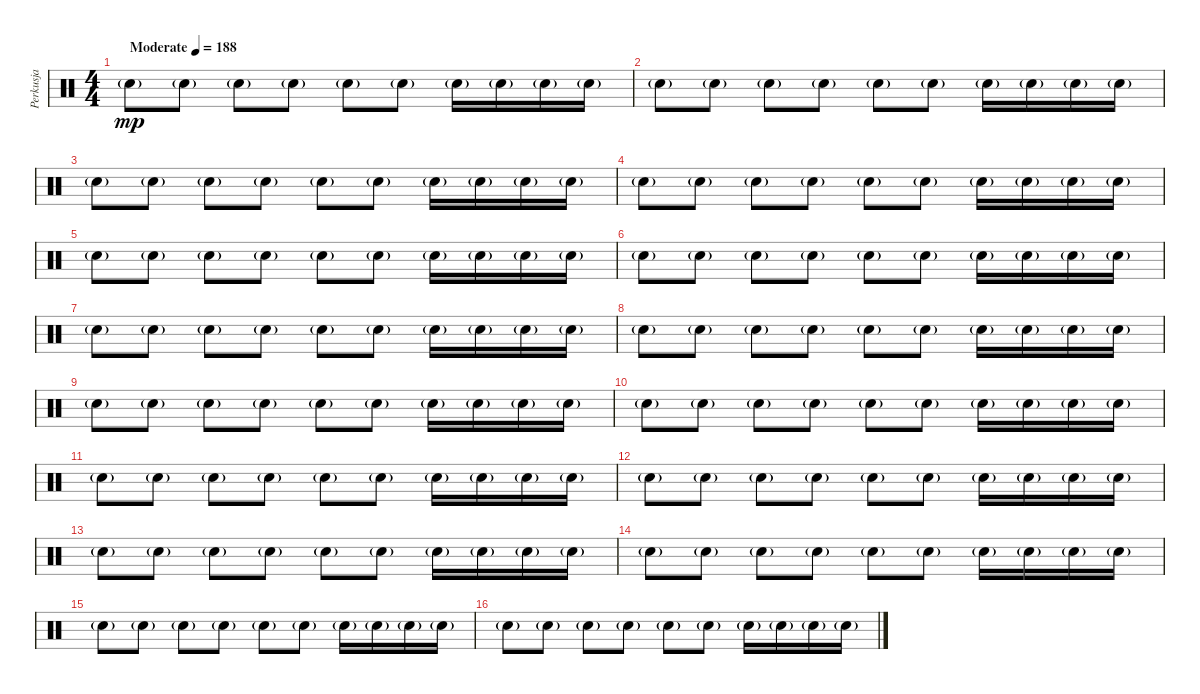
\track ("Perkusja" "Perkusja") {instrument percussion}
\staff {score}
\articulation defaults
\ts (4 4)
\tempo (188 "Moderate")
\clef neutral
\ks c "Electric Snare (hit)"{g}.8{dy mp} "Electric Snare (hit)"{g}.8 "Electric Snare (hit)"{g}.8 "Electric Snare (hit)"{g}.8 "Electric Snare (hit)"{g}.8 "Electric Snare (hit)"{g}.8 "Electric Snare (hit)"{g}.16 "Electric Snare (hit)"{g}.16 "Electric Snare (hit)"{g}.16 "Electric Snare (hit)"{g}.16
|
"Electric Snare (hit)"{g}.8 "Electric Snare (hit)"{g}.8 "Electric Snare (hit)"{g}.8 "Electric Snare (hit)"{g}.8 "Electric Snare (hit)"{g}.8 "Electric Snare (hit)"{g}.8 "Electric Snare (hit)"{g}.16 "Electric Snare (hit)"{g}.16 "Electric Snare (hit)"{g}.16 "Electric Snare (hit)"{g}.16 |
"Electric Snare (hit)"{g}.8 "Electric Snare (hit)"{g}.8 "Electric Snare (hit)"{g}.8 "Electric Snare (hit)"{g}.8 "Electric Snare (hit)"{g}.8 "Electric Snare (hit)"{g}.8 "Electric Snare (hit)"{g}.16 "Electric Snare (hit)"{g}.16 "Electric Snare (hit)"{g}.16 "Electric Snare (hit)"{g}.16 |
"Electric Snare (hit)"{g}.8 "Electric Snare (hit)"{g}.8 "Electric Snare (hit)"{g}.8 "Electric Snare (hit)"{g}.8 "Electric Snare (hit)"{g}.8 "Electric Snare (hit)"{g}.8 "Electric Snare (hit)"{g}.16 "Electric Snare (hit)"{g}.16 "Electric Snare (hit)"{g}.16 "Electric Snare (hit)"{g}.16 |
"Electric Snare (hit)"{g}.8 "Electric Snare (hit)"{g}.8 "Electric Snare (hit)"{g}.8 "Electric Snare (hit)"{g}.8 "Electric Snare (hit)"{g}.8 "Electric Snare (hit)"{g}.8 "Electric Snare (hit)"{g}.16 "Electric Snare (hit)"{g}.16 "Electric Snare (hit)"{g}.16 "Electric Snare (hit)"{g}.16 |
"Electric Snare (hit)"{g}.8 "Electric Snare (hit)"{g}.8 "Electric Snare (hit)"{g}.8 "Electric Snare (hit)"{g}.8 "Electric Snare (hit)"{g}.8 "Electric Snare (hit)"{g}.8 "Electric Snare (hit)"{g}.16 "Electric Snare (hit)"{g}.16 "Electric Snare (hit)"{g}.16 "Electric Snare (hit)"{g}.16 |
"Electric Snare (hit)"{g}.8 "Electric Snare (hit)"{g}.8 "Electric Snare (hit)"{g}.8 "Electric Snare (hit)"{g}.8 "Electric Snare (hit)"{g}.8 "Electric Snare (hit)"{g}.8 "Electric Snare (hit)"{g}.16 "Electric Snare (hit)"{g}.16 "Electric Snare (hit)"{g}.16 "Electric Snare (hit)"{g}.16 |
"Electric Snare (hit)"{g}.8 "Electric Snare (hit)"{g}.8 "Electric Snare (hit)"{g}.8 "Electric Snare (hit)"{g}.8 "Electric Snare (hit)"{g}.8 "Electric Snare (hit)"{g}.8 "Electric Snare (hit)"{g}.16 "Electric Snare (hit)"{g}.16 "Electric Snare (hit)"{g}.16 "Electric Snare (hit)"{g}.16 |
"Electric Snare (hit)"{g}.8 "Electric Snare (hit)"{g}.8 "Electric Snare (hit)"{g}.8 "Electric Snare (hit)"{g}.8 "Electric Snare (hit)"{g}.8 "Electric Snare (hit)"{g}.8 "Electric Snare (hit)"{g}.16 "Electric Snare (hit)"{g}.16 "Electric Snare (hit)"{g}.16 "Electric Snare (hit)"{g}.16 |
"Electric Snare (hit)"{g}.8 "Electric Snare (hit)"{g}.8 "Electric Snare (hit)"{g}.8 "Electric Snare (hit)"{g}.8 "Electric Snare (hit)"{g}.8 "Electric Snare (hit)"{g}.8 "Electric Snare (hit)"{g}.16 "Electric Snare (hit)"{g}.16 "Electric Snare (hit)"{g}.16 "Electric Snare (hit)"{g}.16 |
"Electric Snare (hit)"{g}.8 "Electric Snare (hit)"{g}.8 "Electric Snare (hit)"{g}.8 "Electric Snare (hit)"{g}.8 "Electric Snare (hit)"{g}.8 "Electric Snare (hit)"{g}.8 "Electric Snare (hit)"{g}.16 "Electric Snare (hit)"{g}.16 "Electric Snare (hit)"{g}.16 "Electric Snare (hit)"{g}.16 |
"Electric Snare (hit)"{g}.8 "Electric Snare (hit)"{g}.8 "Electric Snare (hit)"{g}.8 "Electric Snare (hit)"{g}.8 "Electric Snare (hit)"{g}.8 "Electric Snare (hit)"{g}.8 "Electric Snare (hit)"{g}.16 "Electric Snare (hit)"{g}.16 "Electric Snare (hit)"{g}.16 "Electric Snare (hit)"{g}.16 |
"Electric Snare (hit)"{g}.8 "Electric Snare (hit)"{g}.8 "Electric Snare (hit)"{g}.8 "Electric Snare (hit)"{g}.8 "Electric Snare (hit)"{g}.8 "Electric Snare (hit)"{g}.8 "Electric Snare (hit)"{g}.16 "Electric Snare (hit)"{g}.16 "Electric Snare (hit)"{g}.16 "Electric Snare (hit)"{g}.16 |
"Electric Snare (hit)"{g}.8 "Electric Snare (hit)"{g}.8 "Electric Snare (hit)"{g}.8 "Electric Snare (hit)"{g}.8 "Electric Snare (hit)"{g}.8 "Electric Snare (hit)"{g}.8 "Electric Snare (hit)"{g}.16 "Electric Snare (hit)"{g}.16 "Electric Snare (hit)"{g}.16 "Electric Snare (hit)"{g}.16 |
"Electric Snare (hit)"{g}.8 "Electric Snare (hit)"{g}.8 "Electric Snare (hit)"{g}.8 "Electric Snare (hit)"{g}.8 "Electric Snare (hit)"{g}.8 "Electric Snare (hit)"{g}.8 "Electric Snare (hit)"{g}.16 "Electric Snare (hit)"{g}.16 "Electric Snare (hit)"{g}.16 "Electric Snare (hit)"{g}.16 |
"Electric Snare (hit)"{g}.8 "Electric Snare (hit)"{g}.8 "Electric Snare (hit)"{g}.8 "Electric Snare (hit)"{g}.8 "Electric Snare (hit)"{g}.8 "Electric Snare (hit)"{g}.8 "Electric Snare (hit)"{g}.16 "Electric Snare (hit)"{g}.16 "Electric Snare (hit)"{g}.16 "Electric Snare (hit)"{g}.16
